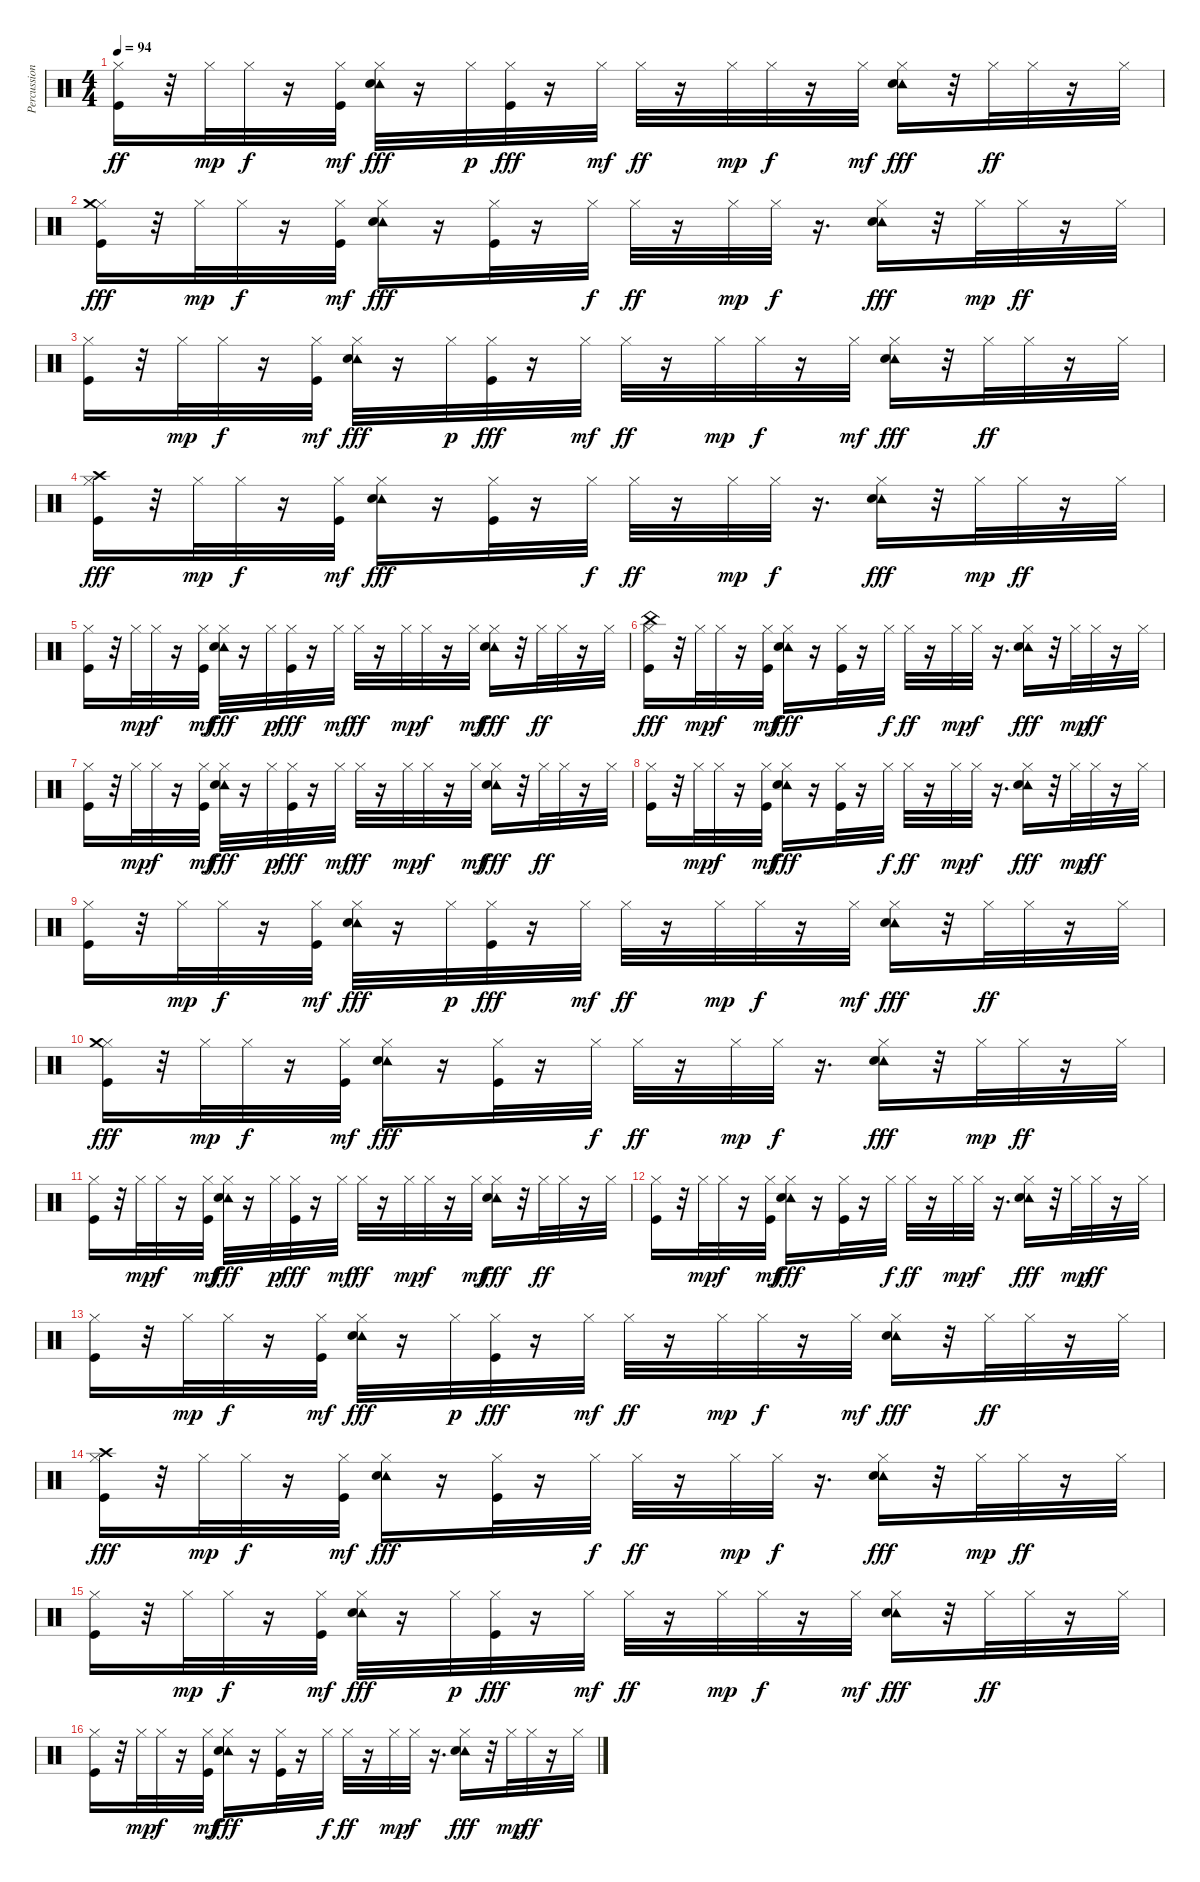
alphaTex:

\track ("Percussion" "Percussion") {instrument percussion}
\staff {score}
\articulation defaults
\ts (4 4)
\tempo 94
\clef neutral
\ks c
("Kick (hit)" "Hi-Hat (closed)").16{dy ff} r.32 "Hi-Hat (closed)".32{dy mp} "Hi-Hat (closed)".32{dy f} r.16 ("Kick (hit)" "Hi-Hat (closed)").32{dy mf} ("Hi-Hat (closed)" "Tambourine (hit)" "Snare (hit) 2").32{dy fff} r.16 "Hi-Hat (closed)".32{dy p} ("Kick (hit)" "Hi-Hat (closed)").32{dy fff} r.16 "Hi-Hat (closed)".32{dy mf} "Hi-Hat (closed)".32{dy ff} r.16 "Hi-Hat (closed)".32{dy mp} "Hi-Hat (closed)".32{dy f} r.16 "Hi-Hat (closed)".32{dy mf} ("Hi-Hat (closed)" "Tambourine (hit)" "Snare (hit) 2").16{dy fff} r.32 "Hi-Hat (closed)".32{dy ff} "Hi-Hat (closed)".32 r.16 "Hi-Hat (closed)".32 |
("Kick (hit)" "Hi-Hat (closed)" "Crash medium (hit)").16{dy fff} r.32 "Hi-Hat (closed)".32{dy mp} "Hi-Hat (closed)".32{dy f} r.16 ("Kick (hit)" "Hi-Hat (closed)").32{dy mf} ("Hi-Hat (closed)" "Tambourine (hit)" "Snare (hit) 2").16{dy fff} r.16 ("Kick (hit)" "Hi-Hat (closed)").32 r.16 "Hi-Hat (closed)".32{dy f} "Hi-Hat (closed)".32{dy ff} r.16 "Hi-Hat (closed)".32{dy mp} "Hi-Hat (closed)".32{dy f} r.16{d} ("Hi-Hat (closed)" "Tambourine (hit)" "Snare (hit) 2").16{dy fff} r.32 "Hi-Hat (closed)".32{dy mp} "Hi-Hat (closed)".32{dy ff} r.16 "Hi-Hat (closed)".32 |
("Kick (hit)" "Hi-Hat (closed)").16 r.32 "Hi-Hat (closed)".32{dy mp} "Hi-Hat (closed)".32{dy f} r.16 ("Kick (hit)" "Hi-Hat (closed)").32{dy mf} ("Hi-Hat (closed)" "Tambourine (hit)" "Snare (hit) 2").32{dy fff} r.16 "Hi-Hat (closed)".32{dy p} ("Kick (hit)" "Hi-Hat (closed)").32{dy fff} r.16 "Hi-Hat (closed)".32{dy mf} "Hi-Hat (closed)".32{dy ff} r.16 "Hi-Hat (closed)".32{dy mp} "Hi-Hat (closed)".32{dy f} r.16 "Hi-Hat (closed)".32{dy mf} ("Hi-Hat (closed)" "Tambourine (hit)" "Snare (hit) 2").16{dy fff} r.32 "Hi-Hat (closed)".32{dy ff} "Hi-Hat (closed)".32 r.16 "Hi-Hat (closed)".32 |
("Kick (hit)" "Hi-Hat (closed)" "Crash high (hit)").16{dy fff} r.32 "Hi-Hat (closed)".32{dy mp} "Hi-Hat (closed)".32{dy f} r.16 ("Kick (hit)" "Hi-Hat (closed)").32{dy mf} ("Hi-Hat (closed)" "Tambourine (hit)" "Snare (hit) 2").16{dy fff} r.16 ("Kick (hit)" "Hi-Hat (closed)").32 r.16 "Hi-Hat (closed)".32{dy f} "Hi-Hat (closed)".32{dy ff} r.16 "Hi-Hat (closed)".32{dy mp} "Hi-Hat (closed)".32{dy f} r.16{d} ("Hi-Hat (closed)" "Tambourine (hit)" "Snare (hit) 2").16{dy fff} r.32 "Hi-Hat (closed)".32{dy mp} "Hi-Hat (closed)".32{dy ff} r.16 "Hi-Hat (closed)".32 |
("Kick (hit)" "Hi-Hat (closed)").16 r.32 "Hi-Hat (closed)".32{dy mp} "Hi-Hat (closed)".32{dy f} r.16 ("Kick (hit)" "Hi-Hat (closed)").32{dy mf} ("Hi-Hat (closed)" "Tambourine (hit)" "Snare (hit) 2").32{dy fff} r.16 "Hi-Hat (closed)".32{dy p} ("Kick (hit)" "Hi-Hat (closed)").32{dy fff} r.16 "Hi-Hat (closed)".32{dy mf} "Hi-Hat (closed)".32{dy ff} r.16 "Hi-Hat (closed)".32{dy mp} "Hi-Hat (closed)".32{dy f} r.16 "Hi-Hat (closed)".32{dy mf} ("Hi-Hat (closed)" "Tambourine (hit)" "Snare (hit) 2").16{dy fff} r.32 "Hi-Hat (closed)".32{dy ff} "Hi-Hat (closed)".32 r.16 "Hi-Hat (closed)".32 |
("Kick (hit)" "Hi-Hat (closed)" "China (hit)").16{dy fff} r.32 "Hi-Hat (closed)".32{dy mp} "Hi-Hat (closed)".32{dy f} r.16 ("Kick (hit)" "Hi-Hat (closed)").32{dy mf} ("Hi-Hat (closed)" "Tambourine (hit)" "Snare (hit) 2").16{dy fff} r.16 ("Kick (hit)" "Hi-Hat (closed)").32 r.16 "Hi-Hat (closed)".32{dy f} "Hi-Hat (closed)".32{dy ff} r.16 "Hi-Hat (closed)".32{dy mp} "Hi-Hat (closed)".32{dy f} r.16{d} ("Hi-Hat (closed)" "Tambourine (hit)" "Snare (hit) 2").16{dy fff} r.32 "Hi-Hat (closed)".32{dy mp} "Hi-Hat (closed)".32{dy ff} r.16 "Hi-Hat (closed)".32 |
("Kick (hit)" "Hi-Hat (closed)").16 r.32 "Hi-Hat (closed)".32{dy mp} "Hi-Hat (closed)".32{dy f} r.16 ("Kick (hit)" "Hi-Hat (closed)").32{dy mf} ("Hi-Hat (closed)" "Tambourine (hit)" "Snare (hit) 2").32{dy fff} r.16 "Hi-Hat (closed)".32{dy p} ("Kick (hit)" "Hi-Hat (closed)").32{dy fff} r.16 "Hi-Hat (closed)".32{dy mf} "Hi-Hat (closed)".32{dy ff} r.16 "Hi-Hat (closed)".32{dy mp} "Hi-Hat (closed)".32{dy f} r.16 "Hi-Hat (closed)".32{dy mf} ("Hi-Hat (closed)" "Tambourine (hit)" "Snare (hit) 2").16{dy fff} r.32 "Hi-Hat (closed)".32{dy ff} "Hi-Hat (closed)".32 r.16 "Hi-Hat (closed)".32 |
("Kick (hit)" "Hi-Hat (closed)").16 r.32 "Hi-Hat (closed)".32{dy mp} "Hi-Hat (closed)".32{dy f} r.16 ("Kick (hit)" "Hi-Hat (closed)").32{dy mf} ("Hi-Hat (closed)" "Tambourine (hit)" "Snare (hit) 2").16{dy fff} r.16 ("Kick (hit)" "Hi-Hat (closed)").32 r.16 "Hi-Hat (closed)".32{dy f} "Hi-Hat (closed)".32{dy ff} r.16 "Hi-Hat (closed)".32{dy mp} "Hi-Hat (closed)".32{dy f} r.16{d} ("Hi-Hat (closed)" "Tambourine (hit)" "Snare (hit) 2").16{dy fff} r.32 "Hi-Hat (closed)".32{dy mp} "Hi-Hat (closed)".32{dy ff} r.16 "Hi-Hat (closed)".32 |
("Kick (hit)" "Hi-Hat (closed)").16 r.32 "Hi-Hat (closed)".32{dy mp} "Hi-Hat (closed)".32{dy f} r.16 ("Kick (hit)" "Hi-Hat (closed)").32{dy mf} ("Hi-Hat (closed)" "Tambourine (hit)" "Snare (hit) 2").32{dy fff} r.16 "Hi-Hat (closed)".32{dy p} ("Kick (hit)" "Hi-Hat (closed)").32{dy fff} r.16 "Hi-Hat (closed)".32{dy mf} "Hi-Hat (closed)".32{dy ff} r.16 "Hi-Hat (closed)".32{dy mp} "Hi-Hat (closed)".32{dy f} r.16 "Hi-Hat (closed)".32{dy mf} ("Hi-Hat (closed)" "Tambourine (hit)" "Snare (hit) 2").16{dy fff} r.32 "Hi-Hat (closed)".32{dy ff} "Hi-Hat (closed)".32 r.16 "Hi-Hat (closed)".32 |
("Kick (hit)" "Hi-Hat (closed)" "Crash medium (hit)").16{dy fff} r.32 "Hi-Hat (closed)".32{dy mp} "Hi-Hat (closed)".32{dy f} r.16 ("Kick (hit)" "Hi-Hat (closed)").32{dy mf} ("Hi-Hat (closed)" "Tambourine (hit)" "Snare (hit) 2").16{dy fff} r.16 ("Kick (hit)" "Hi-Hat (closed)").32 r.16 "Hi-Hat (closed)".32{dy f} "Hi-Hat (closed)".32{dy ff} r.16 "Hi-Hat (closed)".32{dy mp} "Hi-Hat (closed)".32{dy f} r.16{d} ("Hi-Hat (closed)" "Tambourine (hit)" "Snare (hit) 2").16{dy fff} r.32 "Hi-Hat (closed)".32{dy mp} "Hi-Hat (closed)".32{dy ff} r.16 "Hi-Hat (closed)".32 |
("Kick (hit)" "Hi-Hat (closed)").16 r.32 "Hi-Hat (closed)".32{dy mp} "Hi-Hat (closed)".32{dy f} r.16 ("Kick (hit)" "Hi-Hat (closed)").32{dy mf} ("Hi-Hat (closed)" "Tambourine (hit)" "Snare (hit) 2").32{dy fff} r.16 "Hi-Hat (closed)".32{dy p} ("Kick (hit)" "Hi-Hat (closed)").32{dy fff} r.16 "Hi-Hat (closed)".32{dy mf} "Hi-Hat (closed)".32{dy ff} r.16 "Hi-Hat (closed)".32{dy mp} "Hi-Hat (closed)".32{dy f} r.16 "Hi-Hat (closed)".32{dy mf} ("Hi-Hat (closed)" "Tambourine (hit)" "Snare (hit) 2").16{dy fff} r.32 "Hi-Hat (closed)".32{dy ff} "Hi-Hat (closed)".32 r.16 "Hi-Hat (closed)".32 |
("Kick (hit)" "Hi-Hat (closed)").16 r.32 "Hi-Hat (closed)".32{dy mp} "Hi-Hat (closed)".32{dy f} r.16 ("Kick (hit)" "Hi-Hat (closed)").32{dy mf} ("Hi-Hat (closed)" "Tambourine (hit)" "Snare (hit) 2").16{dy fff} r.16 ("Kick (hit)" "Hi-Hat (closed)").32 r.16 "Hi-Hat (closed)".32{dy f} "Hi-Hat (closed)".32{dy ff} r.16 "Hi-Hat (closed)".32{dy mp} "Hi-Hat (closed)".32{dy f} r.16{d} ("Hi-Hat (closed)" "Tambourine (hit)" "Snare (hit) 2").16{dy fff} r.32 "Hi-Hat (closed)".32{dy mp} "Hi-Hat (closed)".32{dy ff} r.16 "Hi-Hat (closed)".32 |
("Kick (hit)" "Hi-Hat (closed)").16 r.32 "Hi-Hat (closed)".32{dy mp} "Hi-Hat (closed)".32{dy f} r.16 ("Kick (hit)" "Hi-Hat (closed)").32{dy mf} ("Hi-Hat (closed)" "Tambourine (hit)" "Snare (hit) 2").32{dy fff} r.16 "Hi-Hat (closed)".32{dy p} ("Kick (hit)" "Hi-Hat (closed)").32{dy fff} r.16 "Hi-Hat (closed)".32{dy mf} "Hi-Hat (closed)".32{dy ff} r.16 "Hi-Hat (closed)".32{dy mp} "Hi-Hat (closed)".32{dy f} r.16 "Hi-Hat (closed)".32{dy mf} ("Hi-Hat (closed)" "Tambourine (hit)" "Snare (hit) 2").16{dy fff} r.32 "Hi-Hat (closed)".32{dy ff} "Hi-Hat (closed)".32 r.16 "Hi-Hat (closed)".32 |
("Kick (hit)" "Hi-Hat (closed)" "Crash high (hit)").16{dy fff} r.32 "Hi-Hat (closed)".32{dy mp} "Hi-Hat (closed)".32{dy f} r.16 ("Kick (hit)" "Hi-Hat (closed)").32{dy mf} ("Hi-Hat (closed)" "Tambourine (hit)" "Snare (hit) 2").16{dy fff} r.16 ("Kick (hit)" "Hi-Hat (closed)").32 r.16 "Hi-Hat (closed)".32{dy f} "Hi-Hat (closed)".32{dy ff} r.16 "Hi-Hat (closed)".32{dy mp} "Hi-Hat (closed)".32{dy f} r.16{d} ("Hi-Hat (closed)" "Tambourine (hit)" "Snare (hit) 2").16{dy fff} r.32 "Hi-Hat (closed)".32{dy mp} "Hi-Hat (closed)".32{dy ff} r.16 "Hi-Hat (closed)".32 |
("Kick (hit)" "Hi-Hat (closed)").16 r.32 "Hi-Hat (closed)".32{dy mp} "Hi-Hat (closed)".32{dy f} r.16 ("Kick (hit)" "Hi-Hat (closed)").32{dy mf} ("Hi-Hat (closed)" "Tambourine (hit)" "Snare (hit) 2").32{dy fff} r.16 "Hi-Hat (closed)".32{dy p} ("Kick (hit)" "Hi-Hat (closed)").32{dy fff} r.16 "Hi-Hat (closed)".32{dy mf} "Hi-Hat (closed)".32{dy ff} r.16 "Hi-Hat (closed)".32{dy mp} "Hi-Hat (closed)".32{dy f} r.16 "Hi-Hat (closed)".32{dy mf} ("Hi-Hat (closed)" "Tambourine (hit)" "Snare (hit) 2").16{dy fff} r.32 "Hi-Hat (closed)".32{dy ff} "Hi-Hat (closed)".32 r.16 "Hi-Hat (closed)".32 |
("Kick (hit)" "Hi-Hat (closed)").16 r.32 "Hi-Hat (closed)".32{dy mp} "Hi-Hat (closed)".32{dy f} r.16 ("Kick (hit)" "Hi-Hat (closed)").32{dy mf} ("Hi-Hat (closed)" "Tambourine (hit)" "Snare (hit) 2").16{dy fff} r.16 ("Kick (hit)" "Hi-Hat (closed)").32 r.16 "Hi-Hat (closed)".32{dy f} "Hi-Hat (closed)".32{dy ff} r.16 "Hi-Hat (closed)".32{dy mp} "Hi-Hat (closed)".32{dy f} r.16{d} ("Hi-Hat (closed)" "Tambourine (hit)" "Snare (hit) 2").16{dy fff} r.32 "Hi-Hat (closed)".32{dy mp} "Hi-Hat (closed)".32{dy ff} r.16 "Hi-Hat (closed)".32
